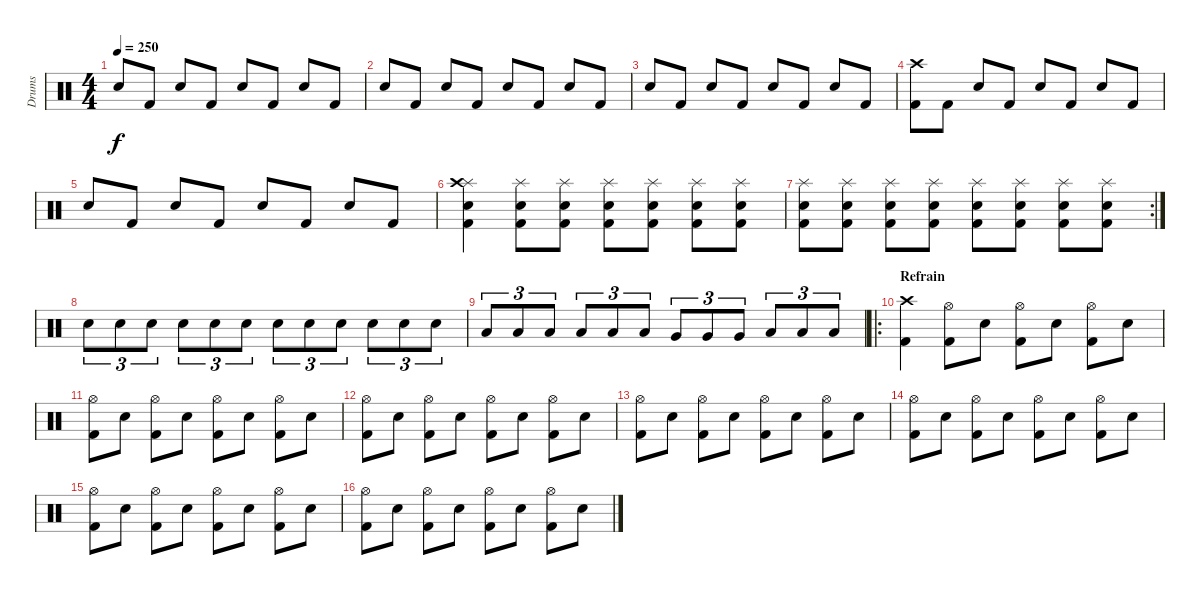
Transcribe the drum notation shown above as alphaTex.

\track ("Drums" "Drums") {instrument percussion}
\staff {score}
\articulation defaults
\ts (4 4)
\tempo 250
\clef neutral
\ks c "Snare (hit) 2".8{dy f} "Kick (hit) 2".8 "Snare (hit) 2".8 "Kick (hit) 2".8 "Snare (hit) 2".8 "Kick (hit) 2".8 "Snare (hit) 2".8 "Kick (hit) 2".8
|
"Snare (hit) 2".8 "Kick (hit) 2".8 "Snare (hit) 2".8 "Kick (hit) 2".8 "Snare (hit) 2".8 "Kick (hit) 2".8 "Snare (hit) 2".8 "Kick (hit) 2".8 |
"Snare (hit) 2".8 "Kick (hit) 2".8 "Snare (hit) 2".8 "Kick (hit) 2".8 "Snare (hit) 2".8 "Kick (hit) 2".8 "Snare (hit) 2".8 "Kick (hit) 2".8 |
("Kick (hit) 2" "Crash high (hit)").8 "Kick (hit) 2".8 "Snare (hit) 2".8 "Kick (hit) 2".8 "Snare (hit) 2".8 "Kick (hit) 2".8 "Snare (hit) 2".8 "Kick (hit) 2".8 |
"Snare (hit) 2".8 "Kick (hit) 2".8 "Snare (hit) 2".8 "Kick (hit) 2".8 "Snare (hit) 2".8 "Kick (hit) 2".8 "Snare (hit) 2".8 "Kick (hit) 2".8 |
("Splash (hit)" "Snare (hit) 2" "Kick (hit) 2" "Crash high (hit)").4 ("Splash (hit)" "Snare (hit) 2" "Kick (hit) 2").8 ("Splash (hit)" "Snare (hit) 2" "Kick (hit) 2").8 ("Splash (hit)" "Snare (hit) 2" "Kick (hit) 2").8 ("Splash (hit)" "Snare (hit) 2" "Kick (hit) 2").8 ("Splash (hit)" "Snare (hit) 2" "Kick (hit) 2").8 ("Splash (hit)" "Snare (hit) 2" "Kick (hit) 2").8 |
\rc 2
("Splash (hit)" "Snare (hit) 2" "Kick (hit) 2").8 ("Splash (hit)" "Snare (hit) 2" "Kick (hit) 2").8 ("Splash (hit)" "Snare (hit) 2" "Kick (hit) 2").8 ("Splash (hit)" "Snare (hit) 2" "Kick (hit) 2").8 ("Splash (hit)" "Snare (hit) 2" "Kick (hit) 2").8 ("Splash (hit)" "Snare (hit) 2" "Kick (hit) 2").8 ("Splash (hit)" "Snare (hit) 2" "Kick (hit) 2").8 ("Splash (hit)" "Snare (hit) 2" "Kick (hit) 2").8 |
"Snare (hit) 2".8{tu (3 2)} "Snare (hit) 2".8{tu (3 2)} "Snare (hit) 2".8{tu (3 2)} "Snare (hit) 2".8{tu (3 2)} "Snare (hit) 2".8{tu (3 2)} "Snare (hit) 2".8{tu (3 2)} "Snare (hit) 2".8{tu (3 2)} "Snare (hit) 2".8{tu (3 2)} "Snare (hit) 2".8{tu (3 2)} "Snare (hit) 2".8{tu (3 2)} "Snare (hit) 2".8{tu (3 2)} "Snare (hit) 2".8{tu (3 2)} |
"Low Tom (hit)".8{tu (3 2)} "Low Tom (hit)".8{tu (3 2)} "Low Tom (hit)".8{tu (3 2)} "Low Tom (hit)".8{tu (3 2)} "Low Tom (hit)".8{tu (3 2)} "Low Tom (hit)".8{tu (3 2)} "Very Low Tom (hit)".8{tu (3 2)} "Very Low Tom (hit)".8{tu (3 2)} "Very Low Tom (hit)".8{tu (3 2)} "Low Floor Tom (hit)".8{tu (3 2)} "Low Floor Tom (hit)".8{tu (3 2)} "Low Floor Tom (hit)".8{tu (3 2)} |
\ro
\section ("" "Refrain")
("Crash high (hit)" "Kick (hit) 2").4 ("Hi-Hat (open)" "Kick (hit) 2").8 "Snare (hit) 2".8 ("Hi-Hat (open)" "Kick (hit) 2").8 "Snare (hit) 2".8 ("Hi-Hat (open)" "Kick (hit) 2").8 "Snare (hit) 2".8 |
("Hi-Hat (open)" "Kick (hit) 2").8 "Snare (hit) 2".8 ("Hi-Hat (open)" "Kick (hit) 2").8 "Snare (hit) 2".8 ("Hi-Hat (open)" "Kick (hit) 2").8 "Snare (hit) 2".8 ("Hi-Hat (open)" "Kick (hit) 2").8 "Snare (hit) 2".8 |
("Hi-Hat (open)" "Kick (hit) 2").8 "Snare (hit) 2".8 ("Hi-Hat (open)" "Kick (hit) 2").8 "Snare (hit) 2".8 ("Hi-Hat (open)" "Kick (hit) 2").8 "Snare (hit) 2".8 ("Hi-Hat (open)" "Kick (hit) 2").8 "Snare (hit) 2".8 |
("Hi-Hat (open)" "Kick (hit) 2").8 "Snare (hit) 2".8 ("Hi-Hat (open)" "Kick (hit) 2").8 "Snare (hit) 2".8 ("Hi-Hat (open)" "Kick (hit) 2").8 "Snare (hit) 2".8 ("Hi-Hat (open)" "Kick (hit) 2").8 "Snare (hit) 2".8 |
("Hi-Hat (open)" "Kick (hit) 2").8 "Snare (hit) 2".8 ("Hi-Hat (open)" "Kick (hit) 2").8 "Snare (hit) 2".8 ("Hi-Hat (open)" "Kick (hit) 2").8 "Snare (hit) 2".8 ("Hi-Hat (open)" "Kick (hit) 2").8 "Snare (hit) 2".8 |
("Hi-Hat (open)" "Kick (hit) 2").8 "Snare (hit) 2".8 ("Hi-Hat (open)" "Kick (hit) 2").8 "Snare (hit) 2".8 ("Hi-Hat (open)" "Kick (hit) 2").8 "Snare (hit) 2".8 ("Hi-Hat (open)" "Kick (hit) 2").8 "Snare (hit) 2".8 |
("Hi-Hat (open)" "Kick (hit) 2").8 "Snare (hit) 2".8 ("Hi-Hat (open)" "Kick (hit) 2").8 "Snare (hit) 2".8 ("Hi-Hat (open)" "Kick (hit) 2").8 "Snare (hit) 2".8 ("Hi-Hat (open)" "Kick (hit) 2").8 "Snare (hit) 2".8
